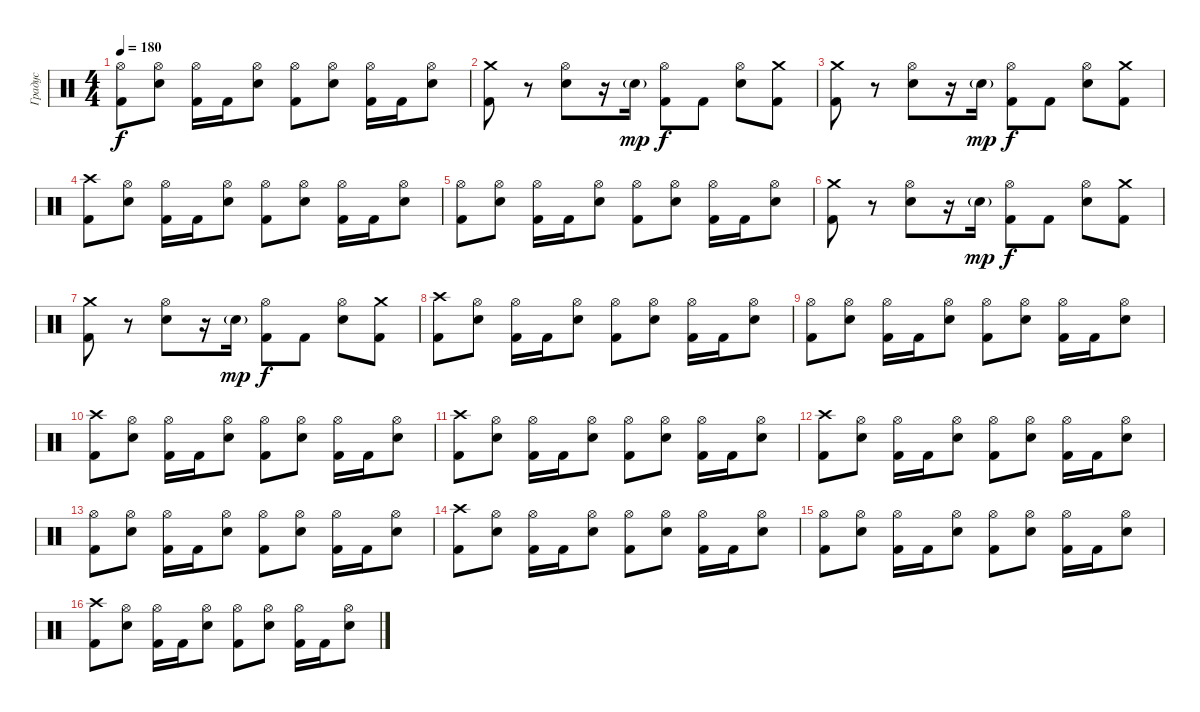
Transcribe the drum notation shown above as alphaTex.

\track ("Градус" "Градус") {instrument percussion}
\staff {score}
\articulation defaults
\ts (4 4)
\tempo 180
\clef neutral
\ks c
("Kick (hit) 2" "Hi-Hat (open)").8{dy f} ("Electric Snare (hit)" "Hi-Hat (open)").8 ("Kick (hit) 2" "Hi-Hat (open)").16 "Kick (hit) 2".16 ("Electric Snare (hit)" "Hi-Hat (open)").8 ("Kick (hit) 2" "Hi-Hat (open)").8 ("Electric Snare (hit)" "Hi-Hat (open)").8 ("Kick (hit) 2" "Hi-Hat (open)").16 "Kick (hit) 2".16 ("Electric Snare (hit)" "Hi-Hat (open)").8 |
("Kick (hit) 2" "Crash medium (hit)").8 r.8 ("Electric Snare (hit)" "Hi-Hat (open)").8 r.16 "Electric Snare (hit)"{g}.16{dy mp} ("Kick (hit) 2" "Hi-Hat (open)").8{dy f} "Kick (hit) 2".8 ("Electric Snare (hit)" "Hi-Hat (open)").8 ("Kick (hit) 2" "Crash medium (hit)").8 |
("Kick (hit) 2" "Crash medium (hit)").8 r.8 ("Electric Snare (hit)" "Hi-Hat (open)").8 r.16 "Electric Snare (hit)"{g}.16{dy mp} ("Kick (hit) 2" "Hi-Hat (open)").8{dy f} "Kick (hit) 2".8 ("Electric Snare (hit)" "Hi-Hat (open)").8 ("Kick (hit) 2" "Crash medium (hit)").8 |
("Kick (hit) 2" "Crash high (hit)").8 ("Electric Snare (hit)" "Hi-Hat (open)").8 ("Kick (hit) 2" "Hi-Hat (open)").16 "Kick (hit) 2".16 ("Electric Snare (hit)" "Hi-Hat (open)").8 ("Kick (hit) 2" "Hi-Hat (open)").8 ("Electric Snare (hit)" "Hi-Hat (open)").8 ("Kick (hit) 2" "Hi-Hat (open)").16 "Kick (hit) 2".16 ("Electric Snare (hit)" "Hi-Hat (open)").8 |
("Kick (hit) 2" "Hi-Hat (open)").8 ("Electric Snare (hit)" "Hi-Hat (open)").8 ("Kick (hit) 2" "Hi-Hat (open)").16 "Kick (hit) 2".16 ("Electric Snare (hit)" "Hi-Hat (open)").8 ("Kick (hit) 2" "Hi-Hat (open)").8 ("Electric Snare (hit)" "Hi-Hat (open)").8 ("Kick (hit) 2" "Hi-Hat (open)").16 "Kick (hit) 2".16 ("Electric Snare (hit)" "Hi-Hat (open)").8 |
("Kick (hit) 2" "Crash medium (hit)").8 r.8 ("Electric Snare (hit)" "Hi-Hat (open)").8 r.16 "Electric Snare (hit)"{g}.16{dy mp} ("Kick (hit) 2" "Hi-Hat (open)").8{dy f} "Kick (hit) 2".8 ("Electric Snare (hit)" "Hi-Hat (open)").8 ("Kick (hit) 2" "Crash medium (hit)").8 |
("Kick (hit) 2" "Crash medium (hit)").8 r.8 ("Electric Snare (hit)" "Hi-Hat (open)").8 r.16 "Electric Snare (hit)"{g}.16{dy mp} ("Kick (hit) 2" "Hi-Hat (open)").8{dy f} "Kick (hit) 2".8 ("Electric Snare (hit)" "Hi-Hat (open)").8 ("Kick (hit) 2" "Crash medium (hit)").8 |
("Kick (hit) 2" "Crash high (hit)").8 ("Electric Snare (hit)" "Hi-Hat (open)").8 ("Kick (hit) 2" "Hi-Hat (open)").16 "Kick (hit) 2".16 ("Electric Snare (hit)" "Hi-Hat (open)").8 ("Kick (hit) 2" "Hi-Hat (open)").8 ("Electric Snare (hit)" "Hi-Hat (open)").8 ("Kick (hit) 2" "Hi-Hat (open)").16 "Kick (hit) 2".16 ("Electric Snare (hit)" "Hi-Hat (open)").8 |
("Kick (hit) 2" "Hi-Hat (open)").8 ("Electric Snare (hit)" "Hi-Hat (open)").8 ("Kick (hit) 2" "Hi-Hat (open)").16 "Kick (hit) 2".16 ("Electric Snare (hit)" "Hi-Hat (open)").8 ("Kick (hit) 2" "Hi-Hat (open)").8 ("Electric Snare (hit)" "Hi-Hat (open)").8 ("Kick (hit) 2" "Hi-Hat (open)").16 "Kick (hit) 2".16 ("Electric Snare (hit)" "Hi-Hat (open)").8 |
("Kick (hit) 2" "Crash high (hit)").8 ("Electric Snare (hit)" "Hi-Hat (open)").8 ("Kick (hit) 2" "Hi-Hat (open)").16 "Kick (hit) 2".16 ("Electric Snare (hit)" "Hi-Hat (open)").8 ("Kick (hit) 2" "Hi-Hat (open)").8 ("Electric Snare (hit)" "Hi-Hat (open)").8 ("Kick (hit) 2" "Hi-Hat (open)").16 "Kick (hit) 2".16 ("Electric Snare (hit)" "Hi-Hat (open)").8 |
("Kick (hit) 2" "Crash high (hit)").8 ("Electric Snare (hit)" "Hi-Hat (open)").8 ("Kick (hit) 2" "Hi-Hat (open)").16 "Kick (hit) 2".16 ("Electric Snare (hit)" "Hi-Hat (open)").8 ("Kick (hit) 2" "Hi-Hat (open)").8 ("Electric Snare (hit)" "Hi-Hat (open)").8 ("Kick (hit) 2" "Hi-Hat (open)").16 "Kick (hit) 2".16 ("Electric Snare (hit)" "Hi-Hat (open)").8 |
("Kick (hit) 2" "Crash high (hit)").8 ("Electric Snare (hit)" "Hi-Hat (open)").8 ("Kick (hit) 2" "Hi-Hat (open)").16 "Kick (hit) 2".16 ("Electric Snare (hit)" "Hi-Hat (open)").8 ("Kick (hit) 2" "Hi-Hat (open)").8 ("Electric Snare (hit)" "Hi-Hat (open)").8 ("Kick (hit) 2" "Hi-Hat (open)").16 "Kick (hit) 2".16 ("Electric Snare (hit)" "Hi-Hat (open)").8 |
("Kick (hit) 2" "Hi-Hat (open)").8 ("Electric Snare (hit)" "Hi-Hat (open)").8 ("Kick (hit) 2" "Hi-Hat (open)").16 "Kick (hit) 2".16 ("Electric Snare (hit)" "Hi-Hat (open)").8 ("Kick (hit) 2" "Hi-Hat (open)").8 ("Electric Snare (hit)" "Hi-Hat (open)").8 ("Kick (hit) 2" "Hi-Hat (open)").16 "Kick (hit) 2".16 ("Electric Snare (hit)" "Hi-Hat (open)").8 |
("Kick (hit) 2" "Crash high (hit)").8 ("Electric Snare (hit)" "Hi-Hat (open)").8 ("Kick (hit) 2" "Hi-Hat (open)").16 "Kick (hit) 2".16 ("Electric Snare (hit)" "Hi-Hat (open)").8 ("Kick (hit) 2" "Hi-Hat (open)").8 ("Electric Snare (hit)" "Hi-Hat (open)").8 ("Kick (hit) 2" "Hi-Hat (open)").16 "Kick (hit) 2".16 ("Electric Snare (hit)" "Hi-Hat (open)").8 |
("Kick (hit) 2" "Hi-Hat (open)").8 ("Electric Snare (hit)" "Hi-Hat (open)").8 ("Kick (hit) 2" "Hi-Hat (open)").16 "Kick (hit) 2".16 ("Electric Snare (hit)" "Hi-Hat (open)").8 ("Kick (hit) 2" "Hi-Hat (open)").8 ("Electric Snare (hit)" "Hi-Hat (open)").8 ("Kick (hit) 2" "Hi-Hat (open)").16 "Kick (hit) 2".16 ("Electric Snare (hit)" "Hi-Hat (open)").8 |
("Kick (hit) 2" "Crash high (hit)").8 ("Electric Snare (hit)" "Hi-Hat (open)").8 ("Kick (hit) 2" "Hi-Hat (open)").16 "Kick (hit) 2".16 ("Electric Snare (hit)" "Hi-Hat (open)").8 ("Kick (hit) 2" "Hi-Hat (open)").8 ("Electric Snare (hit)" "Hi-Hat (open)").8 ("Kick (hit) 2" "Hi-Hat (open)").16 "Kick (hit) 2".16 ("Electric Snare (hit)" "Hi-Hat (open)").8
